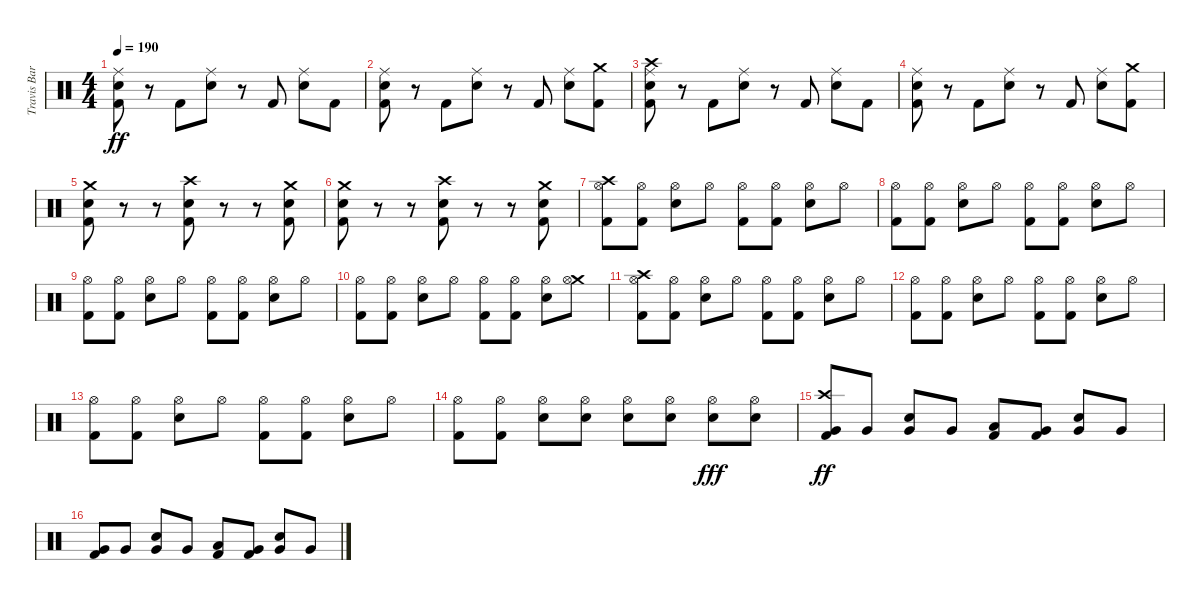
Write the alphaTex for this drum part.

\track ("Travis Barker - Drums" "Travis Bar") {instrument percussion}
\staff {score}
\articulation defaults
\ts (4 4)
\tempo 190
\clef neutral
\ks c
("Ride (middle)" "Electric Snare (hit)" "Kick (hit) 2").8{dy ff} r.8 "Kick (hit) 2".8 ("Ride (middle)" "Electric Snare (hit)").8 r.8 "Kick (hit) 2".8 ("Ride (middle)" "Electric Snare (hit)").8 "Kick (hit) 2".8 |
("Ride (middle)" "Electric Snare (hit)" "Kick (hit) 2").8 r.8 "Kick (hit) 2".8 ("Ride (middle)" "Electric Snare (hit)").8 r.8 "Kick (hit) 2".8 ("Ride (middle)" "Electric Snare (hit)").8 ("Crash medium (hit)" "Kick (hit) 2").8 |
("Crash high (hit)" "Ride (middle)" "Electric Snare (hit)" "Kick (hit) 2").8 r.8 "Kick (hit) 2".8 ("Ride (middle)" "Electric Snare (hit)").8 r.8 "Kick (hit) 2".8 ("Ride (middle)" "Electric Snare (hit)").8 "Kick (hit) 2".8 |
("Ride (middle)" "Electric Snare (hit)" "Kick (hit) 2").8 r.8 "Kick (hit) 2".8 ("Ride (middle)" "Electric Snare (hit)").8 r.8 "Kick (hit) 2".8 ("Ride (middle)" "Electric Snare (hit)").8 ("Crash medium (hit)" "Kick (hit) 2").8 |
("Crash medium (hit)" "Electric Snare (hit)" "Kick (hit) 2").8 r.8 r.8 ("Crash high (hit)" "Electric Snare (hit)" "Kick (hit) 2").8 r.8 r.8 ("Crash medium (hit)" "Electric Snare (hit)" "Kick (hit) 2").8 |
("Crash medium (hit)" "Electric Snare (hit)" "Kick (hit) 2").8 r.8 r.8 ("Crash high (hit)" "Electric Snare (hit)" "Kick (hit) 2").8 r.8 r.8 ("Crash medium (hit)" "Electric Snare (hit)" "Kick (hit) 2").8 |
("Crash high (hit)" "Hi-Hat (open)" "Kick (hit) 2").8 ("Hi-Hat (open)" "Kick (hit) 2").8 ("Hi-Hat (open)" "Electric Snare (hit)").8 "Hi-Hat (open)".8 ("Hi-Hat (open)" "Kick (hit) 2").8 ("Hi-Hat (open)" "Kick (hit) 2").8 ("Hi-Hat (open)" "Electric Snare (hit)").8 "Hi-Hat (open)".8 |
("Hi-Hat (open)" "Kick (hit) 2").8 ("Hi-Hat (open)" "Kick (hit) 2").8 ("Hi-Hat (open)" "Electric Snare (hit)").8 "Hi-Hat (open)".8 ("Hi-Hat (open)" "Kick (hit) 2").8 ("Hi-Hat (open)" "Kick (hit) 2").8 ("Hi-Hat (open)" "Electric Snare (hit)").8 "Hi-Hat (open)".8 |
("Hi-Hat (open)" "Kick (hit) 2").8 ("Hi-Hat (open)" "Kick (hit) 2").8 ("Hi-Hat (open)" "Electric Snare (hit)").8 "Hi-Hat (open)".8 ("Hi-Hat (open)" "Kick (hit) 2").8 ("Hi-Hat (open)" "Kick (hit) 2").8 ("Hi-Hat (open)" "Electric Snare (hit)").8 "Hi-Hat (open)".8 |
("Hi-Hat (open)" "Kick (hit) 2").8 ("Hi-Hat (open)" "Kick (hit) 2").8 ("Hi-Hat (open)" "Electric Snare (hit)").8 "Hi-Hat (open)".8 ("Hi-Hat (open)" "Kick (hit) 2").8 ("Hi-Hat (open)" "Kick (hit) 2").8 ("Hi-Hat (open)" "Electric Snare (hit)").8 ("Crash medium (hit)" "Hi-Hat (open)").8 |
("Crash high (hit)" "Hi-Hat (open)" "Kick (hit) 2").8 ("Hi-Hat (open)" "Kick (hit) 2").8 ("Hi-Hat (open)" "Electric Snare (hit)").8 "Hi-Hat (open)".8 ("Hi-Hat (open)" "Kick (hit) 2").8 ("Hi-Hat (open)" "Kick (hit) 2").8 ("Hi-Hat (open)" "Electric Snare (hit)").8 "Hi-Hat (open)".8 |
("Hi-Hat (open)" "Kick (hit) 2").8 ("Hi-Hat (open)" "Kick (hit) 2").8 ("Hi-Hat (open)" "Electric Snare (hit)").8 "Hi-Hat (open)".8 ("Hi-Hat (open)" "Kick (hit) 2").8 ("Hi-Hat (open)" "Kick (hit) 2").8 ("Hi-Hat (open)" "Electric Snare (hit)").8 "Hi-Hat (open)".8 |
("Hi-Hat (open)" "Kick (hit) 2").8 ("Hi-Hat (open)" "Kick (hit) 2").8 ("Hi-Hat (open)" "Electric Snare (hit)").8 "Hi-Hat (open)".8 ("Hi-Hat (open)" "Kick (hit) 2").8 ("Hi-Hat (open)" "Kick (hit) 2").8 ("Hi-Hat (open)" "Electric Snare (hit)").8 "Hi-Hat (open)".8 |
("Hi-Hat (open)" "Kick (hit) 2").8 ("Hi-Hat (open)" "Kick (hit) 2").8 ("Hi-Hat (open)" "Electric Snare (hit)").8 ("Hi-Hat (open)" "Electric Snare (hit)").8 ("Hi-Hat (open)" "Electric Snare (hit)").8 ("Hi-Hat (open)" "Electric Snare (hit)").8 ("Hi-Hat (open)" "Electric Snare (hit)").8{dy fff} ("Hi-Hat (open)" "Electric Snare (hit)").8 |
("Crash high (hit)" "Very Low Tom (hit)" "Kick (hit) 2").8{dy ff} "Very Low Tom (hit)".8 ("Very Low Tom (hit)" "Electric Snare (hit)").8 "Very Low Tom (hit)".8 ("Low Floor Tom (hit)" "Kick (hit) 2").8 ("Very Low Tom (hit)" "Kick (hit) 2").8 ("Very Low Tom (hit)" "Electric Snare (hit)").8 "Very Low Tom (hit)".8 |
("Very Low Tom (hit)" "Kick (hit) 2").8 "Very Low Tom (hit)".8 ("Very Low Tom (hit)" "Electric Snare (hit)").8 "Very Low Tom (hit)".8 ("Low Floor Tom (hit)" "Kick (hit) 2").8 ("Very Low Tom (hit)" "Kick (hit) 2").8 ("Very Low Tom (hit)" "Electric Snare (hit)").8 "Very Low Tom (hit)".8
